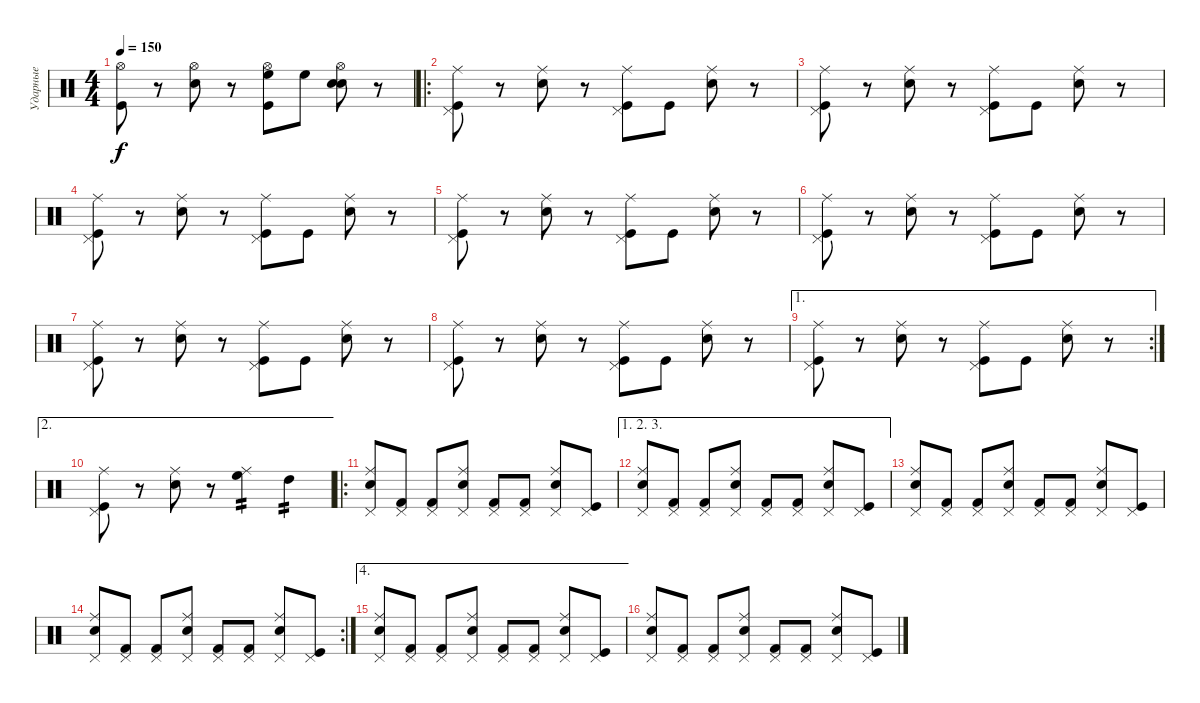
\track ("Ударные" "Ударные") {instrument percussion}
\staff {score}
\articulation defaults
\ts (4 4)
\tempo 150
\clef neutral
\ks c
("Hi-Hat (open)" "Kick (hit)").8{dy f} r.8 ("Hi-Hat (open)" "Snare (hit) 2").8 r.8 ("Hi-Hat (open)" "Kick (hit)" "High Floor Tom (hit)").8 "High Floor Tom (hit)".8 ("Hi-Hat (open)" "Snare (hit) 2" "Electric Snare (hit)").8 r.8 |
\ro
("Kick (hit)" "Pedal Hi-Hat (hit)" "Ride (middle)").8 r.8 ("Ride (middle)" "Electric Snare (hit)").8 r.8 ("Kick (hit)" "Pedal Hi-Hat (hit)" "Ride (middle)").8 "Kick (hit)".8 ("Electric Snare (hit)" "Ride (middle)").8 r.8 |
("Kick (hit)" "Pedal Hi-Hat (hit)" "Ride (middle)").8 r.8 ("Ride (middle)" "Electric Snare (hit)").8 r.8 ("Kick (hit)" "Pedal Hi-Hat (hit)" "Ride (middle)").8 "Kick (hit)".8 ("Electric Snare (hit)" "Ride (middle)").8 r.8 |
("Kick (hit)" "Pedal Hi-Hat (hit)" "Ride (middle)").8 r.8 ("Ride (middle)" "Electric Snare (hit)").8 r.8 ("Kick (hit)" "Pedal Hi-Hat (hit)" "Ride (middle)").8 "Kick (hit)".8 ("Electric Snare (hit)" "Ride (middle)").8 r.8 |
("Kick (hit)" "Pedal Hi-Hat (hit)" "Ride (middle)").8 r.8 ("Ride (middle)" "Electric Snare (hit)").8 r.8 ("Kick (hit)" "Pedal Hi-Hat (hit)" "Ride (middle)").8 "Kick (hit)".8 ("Electric Snare (hit)" "Ride (middle)").8 r.8 |
("Kick (hit)" "Pedal Hi-Hat (hit)" "Ride (middle)").8 r.8 ("Ride (middle)" "Electric Snare (hit)").8 r.8 ("Kick (hit)" "Pedal Hi-Hat (hit)" "Ride (middle)").8 "Kick (hit)".8 ("Electric Snare (hit)" "Ride (middle)").8 r.8 |
("Kick (hit)" "Pedal Hi-Hat (hit)" "Ride (middle)").8 r.8 ("Ride (middle)" "Electric Snare (hit)").8 r.8 ("Kick (hit)" "Pedal Hi-Hat (hit)" "Ride (middle)").8 "Kick (hit)".8 ("Electric Snare (hit)" "Ride (middle)").8 r.8 |
("Kick (hit)" "Pedal Hi-Hat (hit)" "Ride (middle)").8 r.8 ("Ride (middle)" "Electric Snare (hit)").8 r.8 ("Kick (hit)" "Pedal Hi-Hat (hit)" "Ride (middle)").8 "Kick (hit)".8 ("Electric Snare (hit)" "Ride (middle)").8 r.8 |
\ae 1
\rc 2
("Kick (hit)" "Pedal Hi-Hat (hit)" "Ride (middle)").8 r.8 ("Ride (middle)" "Electric Snare (hit)").8 r.8 ("Kick (hit)" "Pedal Hi-Hat (hit)" "Ride (middle)").8 "Kick (hit)".8 ("Electric Snare (hit)" "Ride (middle)").8 r.8 |
\ae 2
("Kick (hit)" "Pedal Hi-Hat (hit)" "Ride (middle)").8 r.8 ("Ride (middle)" "Electric Snare (hit)").8 r.8 ("Ride (middle)" "High Floor Tom (hit)").4{tp 2} "High Tom (hit)".4{tp 2} |
\ro
("Electric Snare (hit)" "Pedal Hi-Hat (hit)" "Ride (middle)").8 ("Kick (hit) 2" "Pedal Hi-Hat (hit)").8 ("Kick (hit) 2" "Pedal Hi-Hat (hit)").8 ("Electric Snare (hit)" "Pedal Hi-Hat (hit)" "Ride (middle)").8 ("Kick (hit) 2" "Pedal Hi-Hat (hit)").8 ("Kick (hit) 2" "Pedal Hi-Hat (hit)").8 ("Electric Snare (hit)" "Pedal Hi-Hat (hit)" "Ride (middle)").8 ("Kick (hit)" "Pedal Hi-Hat (hit)").8 |
\ae (1 2 3)
("Electric Snare (hit)" "Pedal Hi-Hat (hit)" "Ride (middle)").8 ("Kick (hit) 2" "Pedal Hi-Hat (hit)").8 ("Kick (hit) 2" "Pedal Hi-Hat (hit)").8 ("Electric Snare (hit)" "Pedal Hi-Hat (hit)" "Ride (middle)").8 ("Kick (hit) 2" "Pedal Hi-Hat (hit)").8 ("Kick (hit) 2" "Pedal Hi-Hat (hit)").8 ("Electric Snare (hit)" "Pedal Hi-Hat (hit)" "Ride (middle)").8 ("Kick (hit)" "Pedal Hi-Hat (hit)").8 |
("Electric Snare (hit)" "Pedal Hi-Hat (hit)" "Ride (middle)").8 ("Kick (hit) 2" "Pedal Hi-Hat (hit)").8 ("Kick (hit) 2" "Pedal Hi-Hat (hit)").8 ("Electric Snare (hit)" "Pedal Hi-Hat (hit)" "Ride (middle)").8 ("Kick (hit) 2" "Pedal Hi-Hat (hit)").8 ("Kick (hit) 2" "Pedal Hi-Hat (hit)").8 ("Electric Snare (hit)" "Pedal Hi-Hat (hit)" "Ride (middle)").8 ("Kick (hit)" "Pedal Hi-Hat (hit)").8 |
\rc 2
("Electric Snare (hit)" "Pedal Hi-Hat (hit)" "Ride (middle)").8 ("Kick (hit) 2" "Pedal Hi-Hat (hit)").8 ("Kick (hit) 2" "Pedal Hi-Hat (hit)").8 ("Electric Snare (hit)" "Pedal Hi-Hat (hit)" "Ride (middle)").8 ("Kick (hit) 2" "Pedal Hi-Hat (hit)").8 ("Kick (hit) 2" "Pedal Hi-Hat (hit)").8 ("Electric Snare (hit)" "Pedal Hi-Hat (hit)" "Ride (middle)").8 ("Kick (hit)" "Pedal Hi-Hat (hit)").8 |
\ae 4
("Electric Snare (hit)" "Pedal Hi-Hat (hit)" "Ride (middle)").8 ("Kick (hit) 2" "Pedal Hi-Hat (hit)").8 ("Kick (hit) 2" "Pedal Hi-Hat (hit)").8 ("Electric Snare (hit)" "Pedal Hi-Hat (hit)" "Ride (middle)").8 ("Kick (hit) 2" "Pedal Hi-Hat (hit)").8 ("Kick (hit) 2" "Pedal Hi-Hat (hit)").8 ("Electric Snare (hit)" "Pedal Hi-Hat (hit)" "Ride (middle)").8 ("Kick (hit)" "Pedal Hi-Hat (hit)").8 |
("Electric Snare (hit)" "Pedal Hi-Hat (hit)" "Ride (middle)").8 ("Kick (hit) 2" "Pedal Hi-Hat (hit)").8 ("Kick (hit) 2" "Pedal Hi-Hat (hit)").8 ("Electric Snare (hit)" "Pedal Hi-Hat (hit)" "Ride (middle)").8 ("Kick (hit) 2" "Pedal Hi-Hat (hit)").8 ("Kick (hit) 2" "Pedal Hi-Hat (hit)").8 ("Electric Snare (hit)" "Pedal Hi-Hat (hit)" "Ride (middle)").8 ("Kick (hit)" "Pedal Hi-Hat (hit)").8
